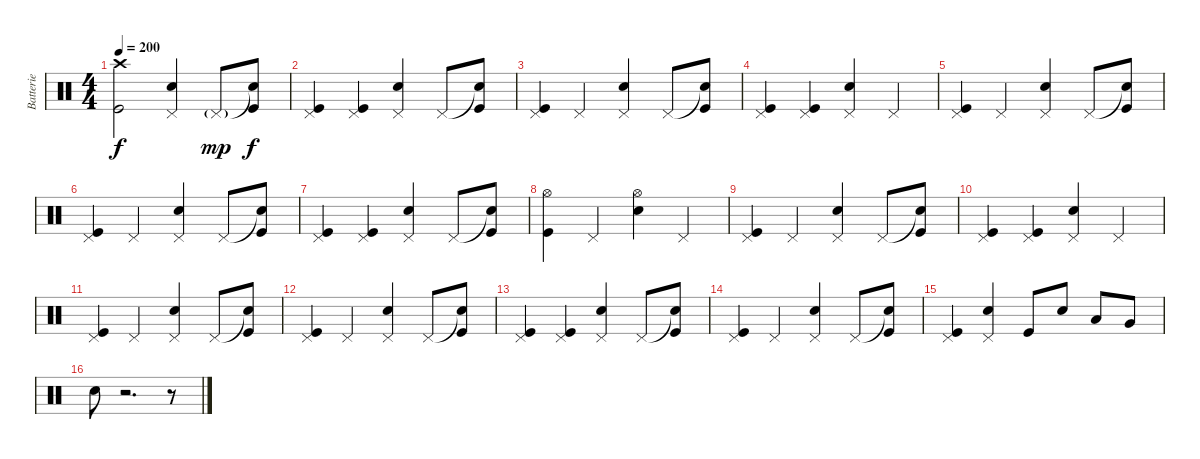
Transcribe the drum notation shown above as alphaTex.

\track ("Batterie" "Batterie") {instrument percussion}
\staff {score}
\articulation defaults
\ts (4 4)
\tempo 200
\clef neutral
\ks c
("Crash high (hit)" "Kick (hit)").2{dy f} ("Pedal Hi-Hat (hit)" "Snare (hit) 2").4 "Pedal Hi-Hat (hit)"{g}.8{dy mp} ("Snare (hit)"{t} "Kick (hit)").8{dy f} |
("Pedal Hi-Hat (hit)" "Kick (hit)").4 ("Pedal Hi-Hat (hit)" "Kick (hit)").4 ("Pedal Hi-Hat (hit)" "Snare (hit) 2").4 "Pedal Hi-Hat (hit)".8 ("Snare (hit)"{t} "Kick (hit)").8 |
("Pedal Hi-Hat (hit)" "Kick (hit)").4 "Pedal Hi-Hat (hit)".4 ("Pedal Hi-Hat (hit)" "Snare (hit) 2").4 "Pedal Hi-Hat (hit)".8 ("Snare (hit)"{t} "Kick (hit)").8 |
("Pedal Hi-Hat (hit)" "Kick (hit)").4 ("Pedal Hi-Hat (hit)" "Kick (hit)").4 ("Pedal Hi-Hat (hit)" "Snare (hit) 2").4 "Pedal Hi-Hat (hit)".4 |
("Pedal Hi-Hat (hit)" "Kick (hit)").4 "Pedal Hi-Hat (hit)".4 ("Pedal Hi-Hat (hit)" "Snare (hit) 2").4 "Pedal Hi-Hat (hit)".8 ("Snare (hit)"{t} "Kick (hit)").8 |
("Pedal Hi-Hat (hit)" "Kick (hit)").4 "Pedal Hi-Hat (hit)".4 ("Pedal Hi-Hat (hit)" "Snare (hit) 2").4 "Pedal Hi-Hat (hit)".8 ("Snare (hit)"{t} "Kick (hit)").8 |
("Pedal Hi-Hat (hit)" "Kick (hit)").4 ("Pedal Hi-Hat (hit)" "Kick (hit)").4 ("Pedal Hi-Hat (hit)" "Snare (hit) 2").4 "Pedal Hi-Hat (hit)".8 ("Snare (hit)"{t} "Kick (hit)").8 |
("Hi-Hat (open)" "Kick (hit)").4 "Pedal Hi-Hat (hit)".4 ("Hi-Hat (open)" "Snare (hit) 2").4 "Pedal Hi-Hat (hit)".4 |
("Pedal Hi-Hat (hit)" "Kick (hit)").4 "Pedal Hi-Hat (hit)".4 ("Pedal Hi-Hat (hit)" "Snare (hit) 2").4 "Pedal Hi-Hat (hit)".8 ("Snare (hit)"{t} "Kick (hit)").8 |
("Pedal Hi-Hat (hit)" "Kick (hit)").4 ("Pedal Hi-Hat (hit)" "Kick (hit)").4 ("Pedal Hi-Hat (hit)" "Snare (hit) 2").4 "Pedal Hi-Hat (hit)".4 |
("Pedal Hi-Hat (hit)" "Kick (hit)").4 "Pedal Hi-Hat (hit)".4 ("Pedal Hi-Hat (hit)" "Snare (hit) 2").4 "Pedal Hi-Hat (hit)".8 ("Snare (hit)"{t} "Kick (hit)").8 |
("Pedal Hi-Hat (hit)" "Kick (hit)").4 "Pedal Hi-Hat (hit)".4 ("Pedal Hi-Hat (hit)" "Snare (hit) 2").4 "Pedal Hi-Hat (hit)".8 ("Snare (hit)"{t} "Kick (hit)").8 |
("Pedal Hi-Hat (hit)" "Kick (hit)").4 ("Pedal Hi-Hat (hit)" "Kick (hit)").4 ("Pedal Hi-Hat (hit)" "Snare (hit) 2").4 "Pedal Hi-Hat (hit)".8 ("Snare (hit)"{t} "Kick (hit)").8 |
("Pedal Hi-Hat (hit)" "Kick (hit)").4 "Pedal Hi-Hat (hit)".4 ("Pedal Hi-Hat (hit)" "Snare (hit) 2").4 "Pedal Hi-Hat (hit)".8 ("Snare (hit)"{t} "Kick (hit)").8 |
("Pedal Hi-Hat (hit)" "Kick (hit)").4 ("Pedal Hi-Hat (hit)" "Snare (hit) 2").4 "Kick (hit)".8 "Snare (hit) 2".8 "Low Tom (hit)".8 "Very Low Tom (hit)".8 |
"Snare (hit) 2".8 r.2{d} r.8
